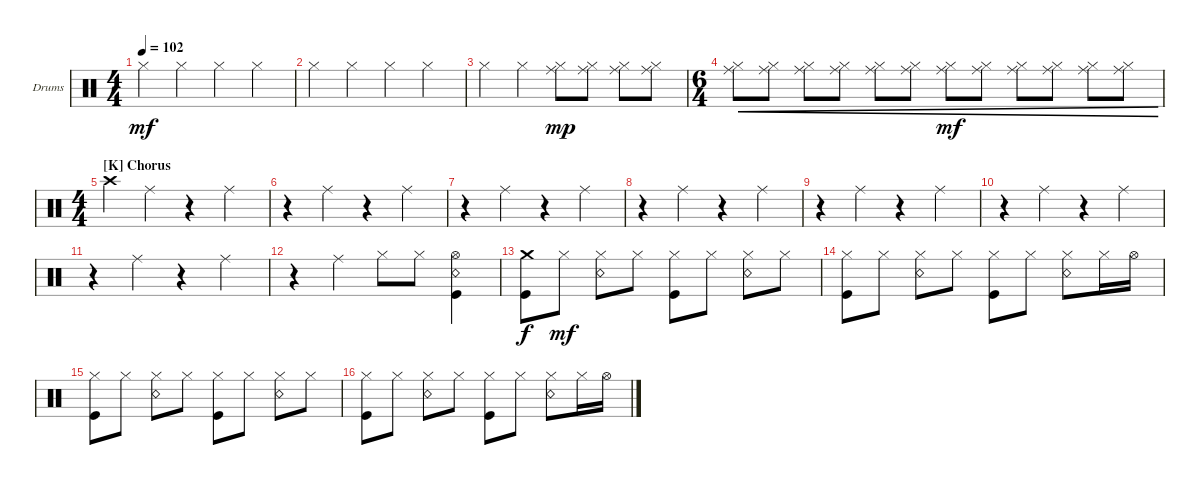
\defaultSystemsLayout 4
\bracketExtendMode groupsimilarinstruments
\firstSystemTrackNameOrientation horizontal
\otherSystemsTrackNameOrientation horizontal
\track ("Drums" "Drums") {instrument percussion}
\staff {score}
\articulation defaults
\ts (4 4)
\tempo 102
\clef neutral
\ks c "Hi-Hat (closed)".4{dy mf} "Hi-Hat (closed)".4 "Hi-Hat (closed)".4 "Hi-Hat (closed)".4
|
"Hi-Hat (closed)".4 "Hi-Hat (closed)".4 "Hi-Hat (closed)".4 "Hi-Hat (closed)".4 |
"Hi-Hat (closed)".4 "Hi-Hat (closed)".4 ("Hi-Hat (closed)" "Ride (middle)").8{dy mp} ("Hi-Hat (closed)" "Ride (middle)").8 ("Hi-Hat (closed)" "Ride (middle)").8 ("Hi-Hat (closed)" "Ride (middle)").8 |
\ts (6 4)
("Hi-Hat (closed)" "Ride (middle)").8{cre} ("Hi-Hat (closed)" "Ride (middle)").8{cre} ("Hi-Hat (closed)" "Ride (middle)").8{cre} ("Hi-Hat (closed)" "Ride (middle)").8{cre} ("Hi-Hat (closed)" "Ride (middle)").8{cre} ("Hi-Hat (closed)" "Ride (middle)").8{cre} ("Hi-Hat (closed)" "Ride (middle)").8{cre dy mf} ("Hi-Hat (closed)" "Ride (middle)").8{cre} ("Hi-Hat (closed)" "Ride (middle)").8{cre} ("Hi-Hat (closed)" "Ride (middle)").8{cre} ("Hi-Hat (closed)" "Ride (middle)").8{cre} ("Hi-Hat (closed)" "Ride (middle)").8{cre} |
\ts (4 4)
\section ("K" "Chorus")
"Crash high (hit)".4 "Ride (middle)".4 r.4 "Ride (middle)".4 |
r.4 "Ride (middle)".4 r.4 "Ride (middle)".4 |
r.4 "Ride (middle)".4 r.4 "Ride (middle)".4 |
r.4 "Ride (middle)".4 r.4 "Ride (middle)".4 |
r.4 "Ride (middle)".4 r.4 "Ride (middle)".4 |
r.4 "Ride (middle)".4 r.4 "Ride (middle)".4 |
r.4 "Ride (middle)".4 r.4 "Ride (middle)".4 |
r.4 "Ride (middle)".4 "Hi-Hat (closed)".8 "Hi-Hat (closed)".8 ("Hi-Hat (open)" "Snare (rim shot)" "Kick (hit)").4 |
("Kick (hit)" "Crash medium (hit)").8{dy f} "Hi-Hat (closed)".8{dy mf} ("Hi-Hat (closed)" "Snare (rim shot)").8 "Hi-Hat (closed)".8 ("Hi-Hat (closed)" "Kick (hit)").8 "Hi-Hat (closed)".8 ("Hi-Hat (closed)" "Snare (rim shot)").8 "Hi-Hat (closed)".8 |
("Kick (hit)" "Hi-Hat (closed)").8 "Hi-Hat (closed)".8 ("Hi-Hat (closed)" "Snare (rim shot)").8 "Hi-Hat (closed)".8 ("Hi-Hat (closed)" "Kick (hit)").8 "Hi-Hat (closed)".8 ("Hi-Hat (closed)" "Snare (rim shot)").8 "Hi-Hat (closed)".16 "Hi-Hat (open)".16 |
("Kick (hit)" "Hi-Hat (closed)").8 "Hi-Hat (closed)".8 ("Hi-Hat (closed)" "Snare (rim shot)").8 "Hi-Hat (closed)".8 ("Hi-Hat (closed)" "Kick (hit)").8 "Hi-Hat (closed)".8 ("Hi-Hat (closed)" "Snare (rim shot)").8 "Hi-Hat (closed)".8 |
("Kick (hit)" "Hi-Hat (closed)").8 "Hi-Hat (closed)".8 ("Hi-Hat (closed)" "Snare (rim shot)").8 "Hi-Hat (closed)".8 ("Hi-Hat (closed)" "Kick (hit)").8 "Hi-Hat (closed)".8 ("Hi-Hat (closed)" "Snare (rim shot)").8 "Hi-Hat (closed)".16 "Hi-Hat (open)".16
